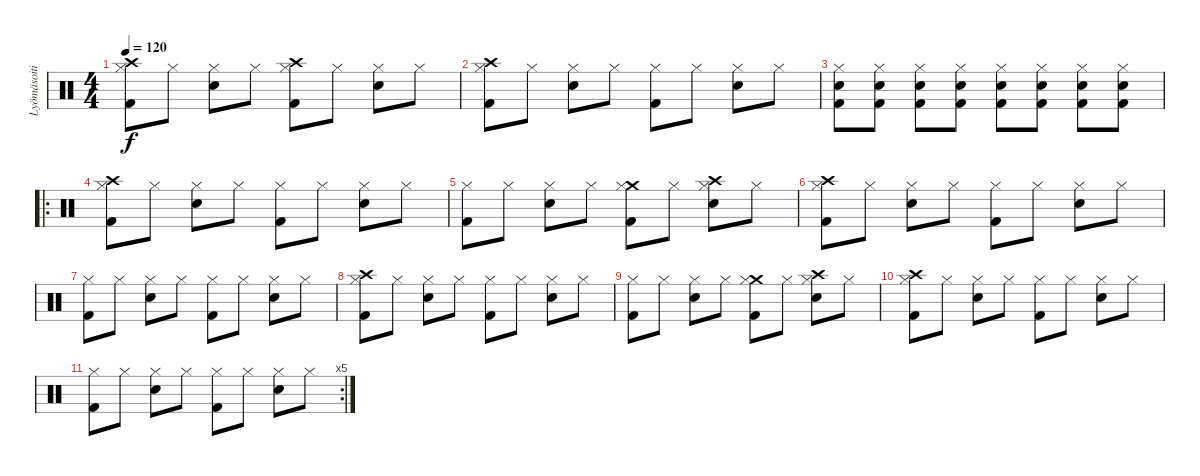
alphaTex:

\track ("Lyömäsoitin" "Lyömäsoiti") {instrument percussion}
\staff {score}
\articulation defaults
\ts (4 4)
\tempo 120
\clef neutral
\ks c
("Crash high (hit)" "Hi-Hat (closed)" "Kick (hit) 2").8{dy f} "Hi-Hat (closed)".8 ("Hi-Hat (closed)" "Electric Snare (hit)").8 "Hi-Hat (closed)".8 ("Crash high (hit)" "Hi-Hat (closed)" "Kick (hit) 2").8 "Hi-Hat (closed)".8 ("Hi-Hat (closed)" "Electric Snare (hit)").8 "Hi-Hat (closed)".8 |
("Crash high (hit)" "Hi-Hat (closed)" "Kick (hit) 2").8 "Hi-Hat (closed)".8 ("Hi-Hat (closed)" "Electric Snare (hit)").8 "Hi-Hat (closed)".8 ("Hi-Hat (closed)" "Kick (hit) 2").8 "Hi-Hat (closed)".8 ("Hi-Hat (closed)" "Electric Snare (hit)").8 "Hi-Hat (closed)".8 |
("Hi-Hat (closed)" "Electric Snare (hit)" "Kick (hit) 2").8 ("Hi-Hat (closed)" "Electric Snare (hit)" "Kick (hit) 2").8 ("Hi-Hat (closed)" "Electric Snare (hit)" "Kick (hit) 2").8 ("Hi-Hat (closed)" "Electric Snare (hit)" "Kick (hit) 2").8 ("Hi-Hat (closed)" "Electric Snare (hit)" "Kick (hit) 2").8 ("Hi-Hat (closed)" "Electric Snare (hit)" "Kick (hit) 2").8 ("Hi-Hat (closed)" "Electric Snare (hit)" "Kick (hit) 2").8 ("Hi-Hat (closed)" "Electric Snare (hit)" "Kick (hit) 2").8 |
\ro
("Crash high (hit)" "Hi-Hat (closed)" "Kick (hit) 2").8 "Hi-Hat (closed)".8 ("Hi-Hat (closed)" "Electric Snare (hit)").8 "Hi-Hat (closed)".8 ("Hi-Hat (closed)" "Kick (hit) 2").8 "Hi-Hat (closed)".8 ("Hi-Hat (closed)" "Electric Snare (hit)").8 "Hi-Hat (closed)".8 |
("Hi-Hat (closed)" "Kick (hit) 2").8 "Hi-Hat (closed)".8 ("Hi-Hat (closed)" "Electric Snare (hit)").8 "Hi-Hat (closed)".8 ("Crash medium (hit)" "Hi-Hat (closed)" "Kick (hit) 2").8 "Hi-Hat (closed)".8 ("Crash high (hit)" "Hi-Hat (closed)" "Electric Snare (hit)").8 "Hi-Hat (closed)".8 |
("Crash high (hit)" "Hi-Hat (closed)" "Kick (hit) 2").8 "Hi-Hat (closed)".8 ("Hi-Hat (closed)" "Electric Snare (hit)").8 "Hi-Hat (closed)".8 ("Hi-Hat (closed)" "Kick (hit) 2").8 "Hi-Hat (closed)".8 ("Hi-Hat (closed)" "Electric Snare (hit)").8 "Hi-Hat (closed)".8 |
("Hi-Hat (closed)" "Kick (hit) 2").8 "Hi-Hat (closed)".8 ("Hi-Hat (closed)" "Electric Snare (hit)").8 "Hi-Hat (closed)".8 ("Hi-Hat (closed)" "Kick (hit) 2").8 "Hi-Hat (closed)".8 ("Hi-Hat (closed)" "Electric Snare (hit)").8 "Hi-Hat (closed)".8 |
("Crash high (hit)" "Hi-Hat (closed)" "Kick (hit) 2").8 "Hi-Hat (closed)".8 ("Hi-Hat (closed)" "Electric Snare (hit)").8 "Hi-Hat (closed)".8 ("Hi-Hat (closed)" "Kick (hit) 2").8 "Hi-Hat (closed)".8 ("Hi-Hat (closed)" "Electric Snare (hit)").8 "Hi-Hat (closed)".8 |
("Hi-Hat (closed)" "Kick (hit) 2").8 "Hi-Hat (closed)".8 ("Hi-Hat (closed)" "Electric Snare (hit)").8 "Hi-Hat (closed)".8 ("Crash medium (hit)" "Hi-Hat (closed)" "Kick (hit) 2").8 "Hi-Hat (closed)".8 ("Crash high (hit)" "Hi-Hat (closed)" "Electric Snare (hit)").8 "Hi-Hat (closed)".8 |
("Crash high (hit)" "Hi-Hat (closed)" "Kick (hit) 2").8 "Hi-Hat (closed)".8 ("Hi-Hat (closed)" "Electric Snare (hit)").8 "Hi-Hat (closed)".8 ("Hi-Hat (closed)" "Kick (hit) 2").8 "Hi-Hat (closed)".8 ("Hi-Hat (closed)" "Electric Snare (hit)").8 "Hi-Hat (closed)".8 |
\rc 5
("Hi-Hat (closed)" "Kick (hit) 2").8 "Hi-Hat (closed)".8 ("Hi-Hat (closed)" "Electric Snare (hit)").8 "Hi-Hat (closed)".8 ("Hi-Hat (closed)" "Kick (hit) 2").8 "Hi-Hat (closed)".8 ("Hi-Hat (closed)" "Electric Snare (hit)").8 "Hi-Hat (closed)".8
